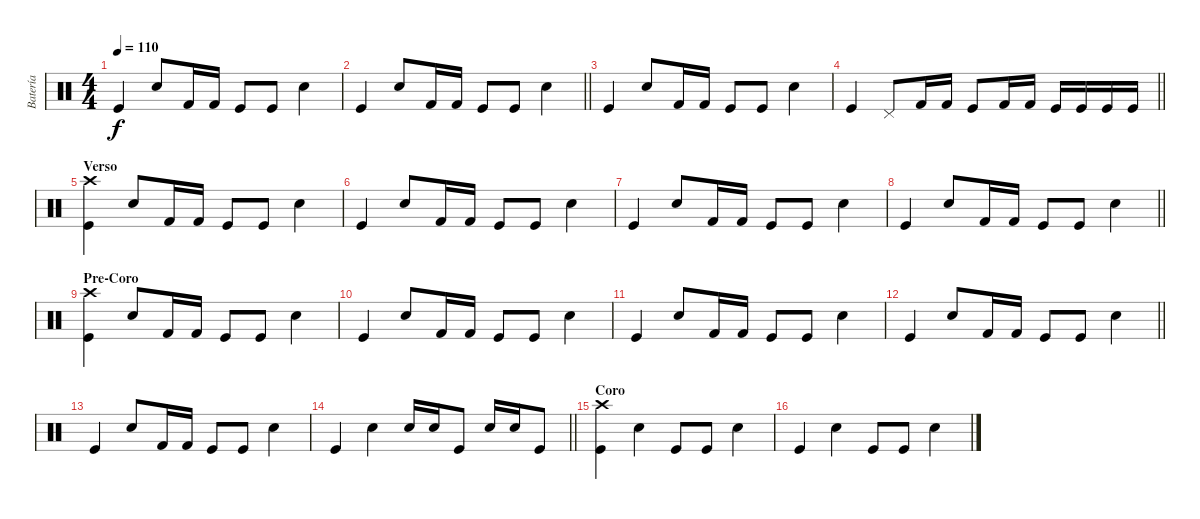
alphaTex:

\track ("Batería" "Batería") {instrument percussion}
\staff {score}
\articulation defaults
\ts (4 4)
\tempo 110
\clef neutral
\ks c "Kick (hit)".4{dy f} "Electric Snare (hit)".8 "Kick (hit) 2".16 "Kick (hit) 2".16 "Kick (hit)".8 "Kick (hit)".8 "Electric Snare (hit)".4
|
\barLineRight lightlight "Kick (hit)".4 "Electric Snare (hit)".8 "Kick (hit) 2".16 "Kick (hit) 2".16 "Kick (hit)".8 "Kick (hit)".8 "Electric Snare (hit)".4
|
"Kick (hit)".4 "Electric Snare (hit)".8 "Kick (hit) 2".16 "Kick (hit) 2".16 "Kick (hit)".8 "Kick (hit)".8 "Electric Snare (hit)".4 |
\barLineRight lightlight "Kick (hit)".4 "Pedal Hi-Hat (hit)".8 "Kick (hit) 2".16 "Kick (hit) 2".16 "Kick (hit)".8 "Kick (hit) 2".16 "Kick (hit) 2".16 "Kick (hit)".16 "Kick (hit)".16 "Kick (hit)".16 "Kick (hit)".16
|
\section ("" "Verso")
("Kick (hit)" "Crash high (hit)").4 "Electric Snare (hit)".8 "Kick (hit) 2".16 "Kick (hit) 2".16 "Kick (hit)".8 "Kick (hit)".8 "Electric Snare (hit)".4 |
"Kick (hit)".4 "Electric Snare (hit)".8 "Kick (hit) 2".16 "Kick (hit) 2".16 "Kick (hit)".8 "Kick (hit)".8 "Electric Snare (hit)".4 |
"Kick (hit)".4 "Electric Snare (hit)".8 "Kick (hit) 2".16 "Kick (hit) 2".16 "Kick (hit)".8 "Kick (hit)".8 "Electric Snare (hit)".4 |
\barLineRight lightlight "Kick (hit)".4 "Electric Snare (hit)".8 "Kick (hit) 2".16 "Kick (hit) 2".16 "Kick (hit)".8 "Kick (hit)".8 "Electric Snare (hit)".4
|
\section ("" "Pre-Coro")
("Kick (hit)" "Crash high (hit)").4 "Electric Snare (hit)".8 "Kick (hit) 2".16 "Kick (hit) 2".16 "Kick (hit)".8 "Kick (hit)".8 "Electric Snare (hit)".4 |
"Kick (hit)".4 "Electric Snare (hit)".8 "Kick (hit) 2".16 "Kick (hit) 2".16 "Kick (hit)".8 "Kick (hit)".8 "Electric Snare (hit)".4 |
"Kick (hit)".4 "Electric Snare (hit)".8 "Kick (hit) 2".16 "Kick (hit) 2".16 "Kick (hit)".8 "Kick (hit)".8 "Electric Snare (hit)".4 |
\barLineRight lightlight "Kick (hit)".4 "Electric Snare (hit)".8 "Kick (hit) 2".16 "Kick (hit) 2".16 "Kick (hit)".8 "Kick (hit)".8 "Electric Snare (hit)".4
|
"Kick (hit)".4 "Electric Snare (hit)".8 "Kick (hit) 2".16 "Kick (hit) 2".16 "Kick (hit)".8 "Kick (hit)".8 "Electric Snare (hit)".4 |
\barLineRight lightlight "Kick (hit)".4 "Electric Snare (hit)".4 "Snare (hit) 2".16 "Snare (hit) 2".16 "Kick (hit)".8 "Snare (hit) 2".16 "Snare (hit) 2".16 "Kick (hit)".8
|
\section ("" "Coro")
("Kick (hit)" "Crash high (hit)").4 "Electric Snare (hit)".4 "Kick (hit)".8 "Kick (hit)".8 "Electric Snare (hit)".4 |
"Kick (hit)".4 "Electric Snare (hit)".4 "Kick (hit)".8 "Kick (hit)".8 "Electric Snare (hit)".4
